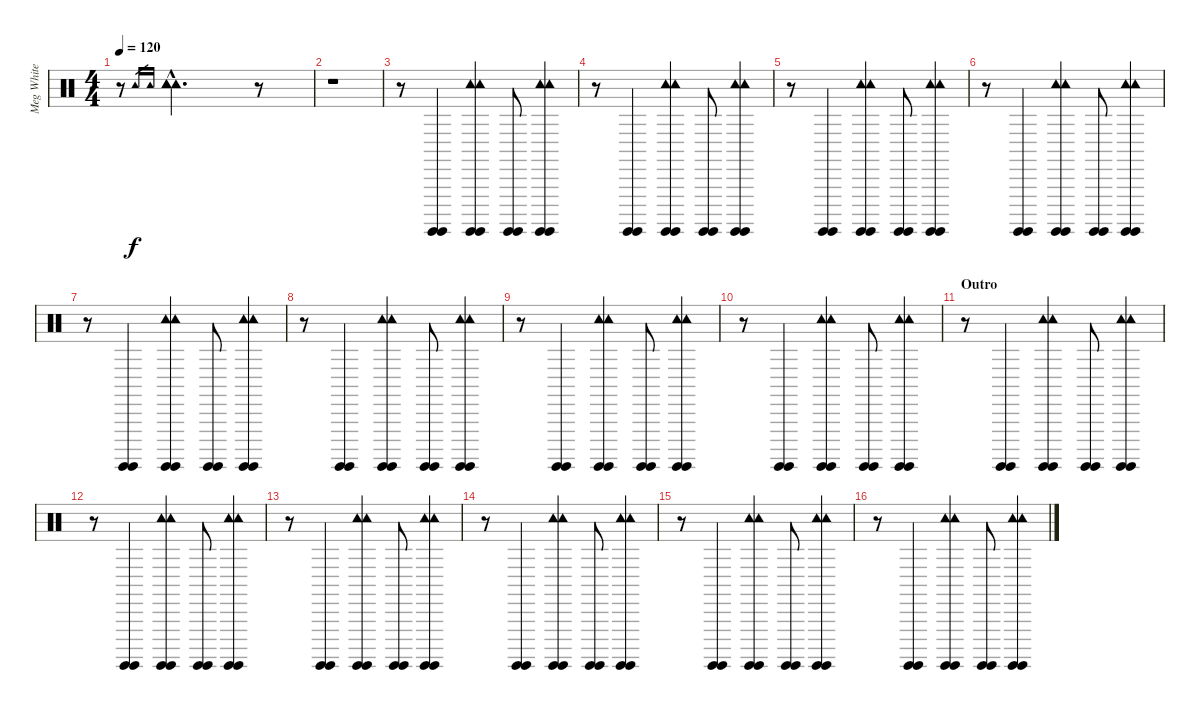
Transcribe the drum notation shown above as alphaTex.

\track ("Meg White" "Meg White") {instrument percussion}
\staff {score}
\articulation defaults
\ts (4 4)
\tempo 120
\clef neutral
\ks c
r.8{dy f} "Tambourine (hit)".16{gr} "Tambourine (hit)".16{gr} ("Tambourine (hit)"{hac} "Tambourine (hit)"{hac} "Tambourine (hit)"{hac}).2{d} r.8 |
r.1 |
r.8 ("Surdo (hit)" "Surdo (hit)").4 ("Surdo (hit)" "Surdo (hit)" "Tambourine (hit)" "Tambourine (hit)").4 ("Surdo (hit)" "Surdo (hit)").8 ("Surdo (hit)" "Surdo (hit)" "Tambourine (hit)" "Tambourine (hit)").4 |
r.8 ("Surdo (hit)" "Surdo (hit)").4 ("Surdo (hit)" "Surdo (hit)" "Tambourine (hit)" "Tambourine (hit)").4 ("Surdo (hit)" "Surdo (hit)").8 ("Surdo (hit)" "Surdo (hit)" "Tambourine (hit)" "Tambourine (hit)").4 |
r.8 ("Surdo (hit)" "Surdo (hit)").4 ("Surdo (hit)" "Surdo (hit)" "Tambourine (hit)" "Tambourine (hit)").4 ("Surdo (hit)" "Surdo (hit)").8 ("Surdo (hit)" "Surdo (hit)" "Tambourine (hit)" "Tambourine (hit)").4 |
r.8 ("Surdo (hit)" "Surdo (hit)").4 ("Surdo (hit)" "Surdo (hit)" "Tambourine (hit)" "Tambourine (hit)").4 ("Surdo (hit)" "Surdo (hit)").8 ("Surdo (hit)" "Surdo (hit)" "Tambourine (hit)" "Tambourine (hit)").4 |
r.8 ("Surdo (hit)" "Surdo (hit)").4 ("Surdo (hit)" "Surdo (hit)" "Tambourine (hit)" "Tambourine (hit)").4 ("Surdo (hit)" "Surdo (hit)").8 ("Surdo (hit)" "Surdo (hit)" "Tambourine (hit)" "Tambourine (hit)").4 |
r.8 ("Surdo (hit)" "Surdo (hit)").4 ("Surdo (hit)" "Surdo (hit)" "Tambourine (hit)" "Tambourine (hit)").4 ("Surdo (hit)" "Surdo (hit)").8 ("Surdo (hit)" "Surdo (hit)" "Tambourine (hit)" "Tambourine (hit)").4 |
r.8 ("Surdo (hit)" "Surdo (hit)").4 ("Surdo (hit)" "Surdo (hit)" "Tambourine (hit)" "Tambourine (hit)").4 ("Surdo (hit)" "Surdo (hit)").8 ("Surdo (hit)" "Surdo (hit)" "Tambourine (hit)" "Tambourine (hit)").4 |
r.8 ("Surdo (hit)" "Surdo (hit)").4 ("Surdo (hit)" "Surdo (hit)" "Tambourine (hit)" "Tambourine (hit)").4 ("Surdo (hit)" "Surdo (hit)").8 ("Surdo (hit)" "Surdo (hit)" "Tambourine (hit)" "Tambourine (hit)").4 |
\section ("" "Outro")
r.8 ("Surdo (hit)" "Surdo (hit)").4 ("Surdo (hit)" "Surdo (hit)" "Tambourine (hit)" "Tambourine (hit)").4 ("Surdo (hit)" "Surdo (hit)").8 ("Surdo (hit)" "Surdo (hit)" "Tambourine (hit)" "Tambourine (hit)").4 |
r.8 ("Surdo (hit)" "Surdo (hit)").4 ("Surdo (hit)" "Surdo (hit)" "Tambourine (hit)" "Tambourine (hit)").4 ("Surdo (hit)" "Surdo (hit)").8 ("Surdo (hit)" "Surdo (hit)" "Tambourine (hit)" "Tambourine (hit)").4 |
r.8 ("Surdo (hit)" "Surdo (hit)").4 ("Surdo (hit)" "Surdo (hit)" "Tambourine (hit)" "Tambourine (hit)").4 ("Surdo (hit)" "Surdo (hit)").8 ("Surdo (hit)" "Surdo (hit)" "Tambourine (hit)" "Tambourine (hit)").4 |
r.8 ("Surdo (hit)" "Surdo (hit)").4 ("Surdo (hit)" "Surdo (hit)" "Tambourine (hit)" "Tambourine (hit)").4 ("Surdo (hit)" "Surdo (hit)").8 ("Surdo (hit)" "Surdo (hit)" "Tambourine (hit)" "Tambourine (hit)").4 |
r.8 ("Surdo (hit)" "Surdo (hit)").4 ("Surdo (hit)" "Surdo (hit)" "Tambourine (hit)" "Tambourine (hit)").4 ("Surdo (hit)" "Surdo (hit)").8 ("Surdo (hit)" "Surdo (hit)" "Tambourine (hit)" "Tambourine (hit)").4 |
r.8 ("Surdo (hit)" "Surdo (hit)").4 ("Surdo (hit)" "Surdo (hit)" "Tambourine (hit)" "Tambourine (hit)").4 ("Surdo (hit)" "Surdo (hit)").8 ("Surdo (hit)" "Surdo (hit)" "Tambourine (hit)" "Tambourine (hit)").4
